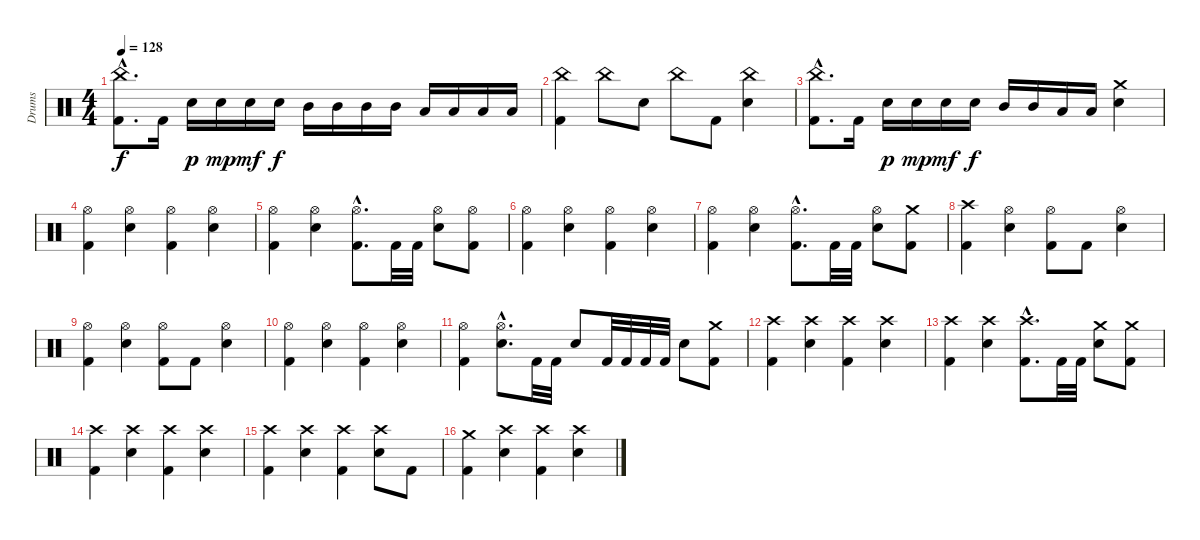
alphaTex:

\track ("Drums" "Drums") {instrument percussion}
\staff {score}
\articulation defaults
\ts (4 4)
\tempo 128
\clef neutral
\ks c
("China (hit)"{hac} "Kick (hit) 2"{hac}).8{d dy f} "Kick (hit) 2".16 "Snare (hit) 2".16{dy p} "Snare (hit) 2".16{dy mp} "Snare (hit) 2".16{dy mf} "Snare (hit) 2".16{dy f} "Mid Tom (hit)".16 "Mid Tom (hit)".16 "Mid Tom (hit)".16 "Mid Tom (hit)".16 "Low Tom (hit)".16 "Low Tom (hit)".16 "Low Tom (hit)".16 "Low Tom (hit)".16 |
("China (hit)" "Kick (hit) 2").4 "China (hit)".8 "Snare (hit) 2".8 "China (hit)".8 "Kick (hit) 2".8 ("China (hit)" "Snare (hit) 2").4 |
("China (hit)"{hac} "Kick (hit) 2"{hac}).8{d} "Kick (hit) 2".16 "Snare (hit) 2".16{dy p} "Snare (hit) 2".16{dy mp} "Snare (hit) 2".16{dy mf} "Snare (hit) 2".16{dy f} "Mid Tom (hit)".16 "Mid Tom (hit)".16 "Low Tom (hit)".16 "Low Tom (hit)".16 ("Crash medium (hit)" "Snare (hit) 2").4 |
("Hi-Hat (open)" "Kick (hit) 2").4 ("Hi-Hat (open)" "Snare (hit) 2").4 ("Hi-Hat (open)" "Kick (hit) 2").4 ("Hi-Hat (open)" "Snare (hit) 2").4 |
("Hi-Hat (open)" "Kick (hit) 2").4 ("Hi-Hat (open)" "Snare (hit) 2").4 ("Hi-Hat (open)"{hac} "Kick (hit) 2"{hac}).8{d} "Kick (hit) 2".32 "Kick (hit) 2".32 ("Hi-Hat (open)" "Snare (hit) 2").8 ("Hi-Hat (open)" "Kick (hit) 2").8 |
("Hi-Hat (open)" "Kick (hit) 2").4 ("Hi-Hat (open)" "Snare (hit) 2").4 ("Hi-Hat (open)" "Kick (hit) 2").4 ("Hi-Hat (open)" "Snare (hit) 2").4 |
("Hi-Hat (open)" "Kick (hit) 2").4 ("Hi-Hat (open)" "Snare (hit) 2").4 ("Hi-Hat (open)"{hac} "Kick (hit) 2"{hac}).8{d} "Kick (hit) 2".32 "Kick (hit) 2".32 ("Hi-Hat (open)" "Snare (hit) 2").8 ("Crash medium (hit)" "Kick (hit) 2").8 |
("Crash high (hit)" "Kick (hit) 2").4 ("Hi-Hat (open)" "Snare (hit) 2").4 ("Hi-Hat (open)" "Kick (hit) 2").8 "Kick (hit) 2".8 ("Hi-Hat (open)" "Snare (hit) 2").4 |
("Hi-Hat (open)" "Kick (hit) 2").4 ("Hi-Hat (open)" "Snare (hit) 2").4 ("Hi-Hat (open)" "Kick (hit) 2").8 "Kick (hit) 2".8 ("Hi-Hat (open)" "Snare (hit) 2").4 |
("Hi-Hat (open)" "Kick (hit) 2").4 ("Hi-Hat (open)" "Snare (hit) 2").4 ("Hi-Hat (open)" "Kick (hit) 2").4 ("Hi-Hat (open)" "Snare (hit) 2").4 |
("Hi-Hat (open)" "Kick (hit) 2").4 ("Hi-Hat (open)"{hac} "Snare (hit) 2"{hac}).8{d} "Kick (hit) 2".32 "Kick (hit) 2".32 "Snare (hit) 2".8 "Kick (hit) 2".32 "Kick (hit) 2".32 "Kick (hit) 2".32 "Kick (hit) 2".32 "Snare (hit) 2".8 ("Crash medium (hit)" "Kick (hit) 2").8 |
("Crash high (hit)" "Kick (hit) 2").4 ("Crash high (hit)" "Snare (hit) 2").4 ("Crash high (hit)" "Kick (hit) 2").4 ("Crash high (hit)" "Snare (hit) 2").4 |
("Crash high (hit)" "Kick (hit) 2").4 ("Crash high (hit)" "Snare (hit) 2").4 ("Crash high (hit)"{hac} "Kick (hit) 2"{hac}).8{d} "Kick (hit) 2".32 "Kick (hit) 2".32 ("Crash medium (hit)" "Snare (hit) 2").8 ("Crash medium (hit)" "Kick (hit) 2").8 |
("Crash high (hit)" "Kick (hit) 2").4 ("Crash high (hit)" "Snare (hit) 2").4 ("Crash high (hit)" "Kick (hit) 2").4 ("Crash high (hit)" "Snare (hit) 2").4 |
("Crash high (hit)" "Kick (hit) 2").4 ("Crash high (hit)" "Snare (hit) 2").4 ("Crash high (hit)" "Kick (hit) 2").4 ("Crash high (hit)" "Snare (hit) 2").8 "Kick (hit) 2".8 |
("Crash medium (hit)" "Kick (hit) 2").4 ("Crash high (hit)" "Snare (hit) 2").4 ("Crash high (hit)" "Kick (hit) 2").4 ("Crash high (hit)" "Snare (hit) 2").4
